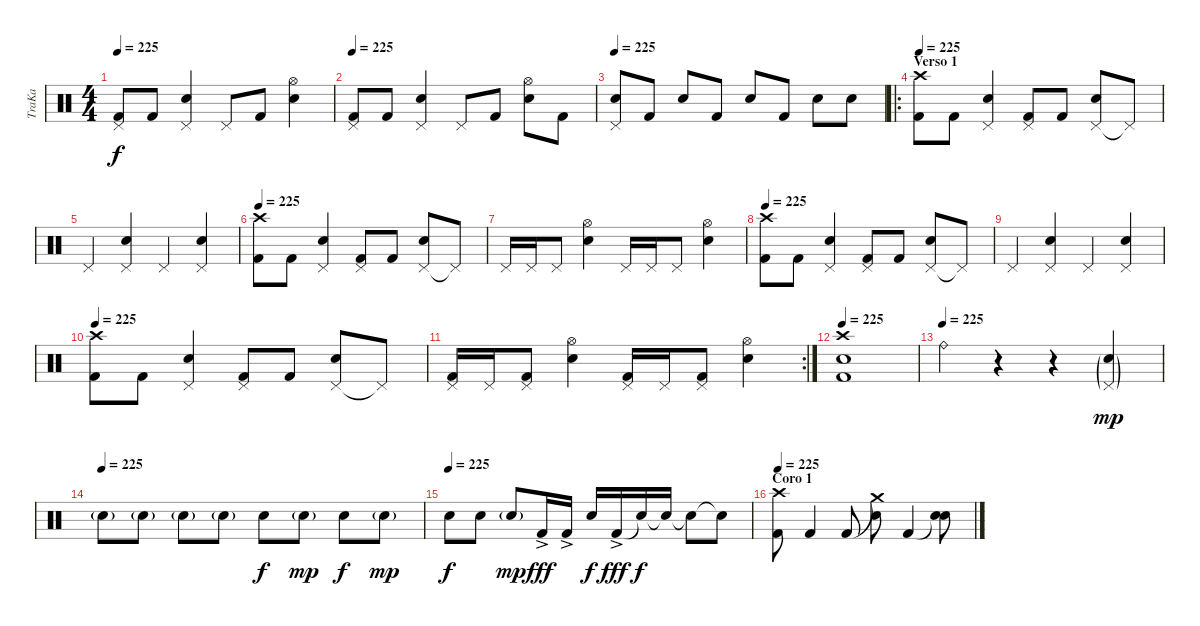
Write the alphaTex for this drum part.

\track ("TraKa" "TraKa") {instrument percussion}
\staff {score}
\articulation defaults
\ts (4 4)
\tempo 225
\clef neutral
\ks c
("Pedal Hi-Hat (hit)" "Kick (hit) 2").8{dy f} "Kick (hit) 2".8 ("Pedal Hi-Hat (hit)" "Electric Snare (hit)").4 "Pedal Hi-Hat (hit)".8 "Kick (hit) 2".8 ("Hi-Hat (open)" "Electric Snare (hit)").4 |
\tempo 225
("Pedal Hi-Hat (hit)" "Kick (hit) 2").8 "Kick (hit) 2".8 ("Pedal Hi-Hat (hit)" "Electric Snare (hit)").4 "Pedal Hi-Hat (hit)".8 "Kick (hit) 2".8 ("Hi-Hat (open)" "Electric Snare (hit)").8 "Kick (hit) 2".8 |
\tempo 225
("Pedal Hi-Hat (hit)" "Electric Snare (hit)").8 "Kick (hit) 2".8 "Electric Snare (hit)".8 "Kick (hit) 2".8 "Electric Snare (hit)".8 "Kick (hit) 2".8 "Electric Snare (hit)".8 "Electric Snare (hit)".8 |
\ro
\section ("" "Verso 1")
\tempo 225
("Crash high (hit)" "Kick (hit) 2").8 "Kick (hit) 2".8 ("Pedal Hi-Hat (hit)" "Electric Snare (hit)").4 ("Pedal Hi-Hat (hit)" "Kick (hit) 2").8 "Kick (hit) 2".8 ("Pedal Hi-Hat (hit)" "Electric Snare (hit)").8 "Pedal Hi-Hat (hit)"{t}.8 |
"Pedal Hi-Hat (hit)".4 ("Pedal Hi-Hat (hit)" "Electric Snare (hit)").4 "Pedal Hi-Hat (hit)".4 ("Pedal Hi-Hat (hit)" "Electric Snare (hit)").4 |
\tempo 225
("Crash high (hit)" "Kick (hit) 2").8 "Kick (hit) 2".8 ("Pedal Hi-Hat (hit)" "Electric Snare (hit)").4 ("Pedal Hi-Hat (hit)" "Kick (hit) 2").8 "Kick (hit) 2".8 ("Pedal Hi-Hat (hit)" "Electric Snare (hit)").8 "Pedal Hi-Hat (hit)"{t}.8 |
"Pedal Hi-Hat (hit)".16 "Pedal Hi-Hat (hit)".16 "Pedal Hi-Hat (hit)".8 ("Hi-Hat (open)" "Electric Snare (hit)").4 "Pedal Hi-Hat (hit)".16 "Pedal Hi-Hat (hit)".16 "Pedal Hi-Hat (hit)".8 ("Hi-Hat (open)" "Electric Snare (hit)").4 |
\tempo 225
("Crash high (hit)" "Kick (hit) 2").8 "Kick (hit) 2".8 ("Pedal Hi-Hat (hit)" "Electric Snare (hit)").4 ("Pedal Hi-Hat (hit)" "Kick (hit) 2").8 "Kick (hit) 2".8 ("Pedal Hi-Hat (hit)" "Electric Snare (hit)").8 "Pedal Hi-Hat (hit)"{t}.8 |
"Pedal Hi-Hat (hit)".4 ("Pedal Hi-Hat (hit)" "Electric Snare (hit)").4 "Pedal Hi-Hat (hit)".4 ("Pedal Hi-Hat (hit)" "Electric Snare (hit)").4 |
\tempo 225
("Crash high (hit)" "Kick (hit) 2").8 "Kick (hit) 2".8 ("Pedal Hi-Hat (hit)" "Electric Snare (hit)").4 ("Pedal Hi-Hat (hit)" "Kick (hit) 2").8 "Kick (hit) 2".8 ("Pedal Hi-Hat (hit)" "Electric Snare (hit)").8 "Pedal Hi-Hat (hit)"{t}.8 |
\rc 2
("Pedal Hi-Hat (hit)" "Kick (hit) 2").16 "Pedal Hi-Hat (hit)".16 ("Pedal Hi-Hat (hit)" "Kick (hit) 2").8 ("Hi-Hat (open)" "Electric Snare (hit)").4 ("Pedal Hi-Hat (hit)" "Kick (hit) 2").16 "Pedal Hi-Hat (hit)".16 ("Pedal Hi-Hat (hit)" "Kick (hit) 2").8 ("Hi-Hat (open)" "Electric Snare (hit)").4 |
\tempo 225
("Crash high (hit)" "Electric Snare (hit)" "Kick (hit) 2").1 |
\tempo (225)
"Ride (bell)".4 r.4 r.4 ("Pedal Hi-Hat (hit)"{g} "Electric Snare (hit)"{g}).4{dy mp} |
\tempo (225)
"Electric Snare (hit)"{g}.8 "Electric Snare (hit)"{g}.8 "Electric Snare (hit)"{g}.8 "Electric Snare (hit)"{g}.8 "Electric Snare (hit)".8{dy f} "Electric Snare (hit)"{g}.8{dy mp} "Electric Snare (hit)".8{dy f} "Electric Snare (hit)"{g}.8{dy mp} |
\tempo (225)
"Electric Snare (hit)".8{dy f} "Electric Snare (hit)".8 "Electric Snare (hit)"{g}.8{dy mp} "Kick (hit) 2"{ac}.16{dy fff} "Kick (hit) 2"{ac}.16 "Electric Snare (hit)".16{dy f} "Kick (hit) 2"{ac}.16{dy fff} "Snare (hit)"{t}.16{dy f} "Snare (hit)"{t}.16 "Snare (hit)"{t}.8 "Snare (hit)"{t}.8 |
\section ("" "Coro 1")
\tempo 225
("Crash high (hit)" "Kick (hit) 2").8 "Kick (hit) 2".4 "Kick (hit) 2".8 ("Crash medium (hit)"{t} "Electric Snare (hit)").8 "Kick (hit) 2".4 ("Snare (hit)"{t} "Electric Snare (hit)").8
